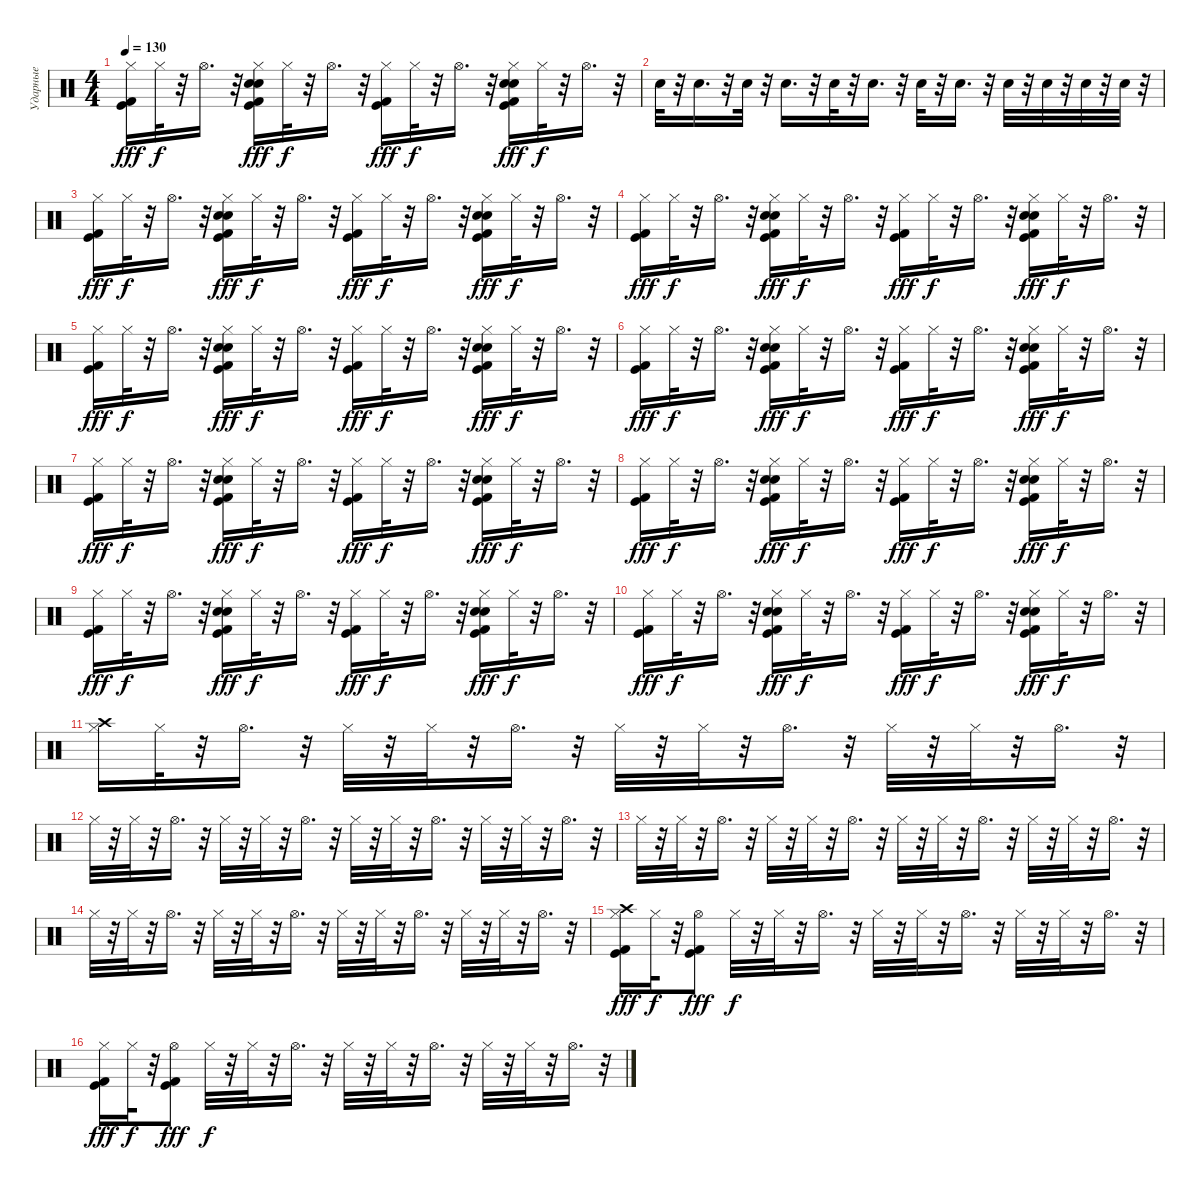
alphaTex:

\track ("Ударные" "Ударные") {instrument percussion}
\staff {score}
\articulation defaults
\ts (4 4)
\tempo 130
\clef neutral
\ks c
("Hi-Hat (closed)" "Kick (hit) 2" "Kick (hit)").16{dy fff} "Hi-Hat (closed)".32{dy f} r.32 "Hi-Hat (open)".16{d} r.32 ("Hi-Hat (closed)" "Kick (hit) 2" "Kick (hit)" "Hand Clap (hit)" "Hand Clap (hit)").16{dy fff} "Hi-Hat (closed)".32{dy f} r.32 "Hi-Hat (open)".16{d} r.32 ("Hi-Hat (closed)" "Kick (hit) 2" "Kick (hit)").16{dy fff} "Hi-Hat (closed)".32{dy f} r.32 "Hi-Hat (open)".16{d} r.32 ("Hi-Hat (closed)" "Kick (hit) 2" "Kick (hit)" "Hand Clap (hit)" "Hand Clap (hit)").16{dy fff} "Hi-Hat (closed)".32{dy f} r.32 "Hi-Hat (open)".16{d} r.32 |
"Electric Snare (hit)".32 r.32 "Electric Snare (hit)".16{d} r.32 "Electric Snare (hit)".32 r.32 "Electric Snare (hit)".16{d} r.32 "Electric Snare (hit)".32 r.32 "Electric Snare (hit)".16{d} r.32 "Electric Snare (hit)".32 r.32 "Electric Snare (hit)".16{d} r.32 "Electric Snare (hit)".32 r.32 "Electric Snare (hit)".32 r.32 "Electric Snare (hit)".32 r.32 "Electric Snare (hit)".32 r.32 |
("Hi-Hat (closed)" "Kick (hit) 2" "Kick (hit)").16{dy fff} "Hi-Hat (closed)".32{dy f} r.32 "Hi-Hat (open)".16{d} r.32 ("Hi-Hat (closed)" "Kick (hit) 2" "Kick (hit)" "Hand Clap (hit)" "Hand Clap (hit)").16{dy fff} "Hi-Hat (closed)".32{dy f} r.32 "Hi-Hat (open)".16{d} r.32 ("Hi-Hat (closed)" "Kick (hit) 2" "Kick (hit)").16{dy fff} "Hi-Hat (closed)".32{dy f} r.32 "Hi-Hat (open)".16{d} r.32 ("Hi-Hat (closed)" "Kick (hit) 2" "Kick (hit)" "Hand Clap (hit)" "Hand Clap (hit)").16{dy fff} "Hi-Hat (closed)".32{dy f} r.32 "Hi-Hat (open)".16{d} r.32 |
("Hi-Hat (closed)" "Kick (hit) 2" "Kick (hit)").16{dy fff} "Hi-Hat (closed)".32{dy f} r.32 "Hi-Hat (open)".16{d} r.32 ("Hi-Hat (closed)" "Kick (hit) 2" "Kick (hit)" "Hand Clap (hit)" "Hand Clap (hit)").16{dy fff} "Hi-Hat (closed)".32{dy f} r.32 "Hi-Hat (open)".16{d} r.32 ("Hi-Hat (closed)" "Kick (hit) 2" "Kick (hit)").16{dy fff} "Hi-Hat (closed)".32{dy f} r.32 "Hi-Hat (open)".16{d} r.32 ("Hi-Hat (closed)" "Kick (hit) 2" "Kick (hit)" "Hand Clap (hit)" "Hand Clap (hit)").16{dy fff} "Hi-Hat (closed)".32{dy f} r.32 "Hi-Hat (open)".16{d} r.32 |
("Hi-Hat (closed)" "Kick (hit) 2" "Kick (hit)").16{dy fff} "Hi-Hat (closed)".32{dy f} r.32 "Hi-Hat (open)".16{d} r.32 ("Hi-Hat (closed)" "Kick (hit) 2" "Kick (hit)" "Hand Clap (hit)" "Hand Clap (hit)").16{dy fff} "Hi-Hat (closed)".32{dy f} r.32 "Hi-Hat (open)".16{d} r.32 ("Hi-Hat (closed)" "Kick (hit) 2" "Kick (hit)").16{dy fff} "Hi-Hat (closed)".32{dy f} r.32 "Hi-Hat (open)".16{d} r.32 ("Hi-Hat (closed)" "Kick (hit) 2" "Kick (hit)" "Hand Clap (hit)" "Hand Clap (hit)").16{dy fff} "Hi-Hat (closed)".32{dy f} r.32 "Hi-Hat (open)".16{d} r.32 |
("Hi-Hat (closed)" "Kick (hit) 2" "Kick (hit)").16{dy fff} "Hi-Hat (closed)".32{dy f} r.32 "Hi-Hat (open)".16{d} r.32 ("Hi-Hat (closed)" "Kick (hit) 2" "Kick (hit)" "Hand Clap (hit)" "Hand Clap (hit)").16{dy fff} "Hi-Hat (closed)".32{dy f} r.32 "Hi-Hat (open)".16{d} r.32 ("Hi-Hat (closed)" "Kick (hit) 2" "Kick (hit)").16{dy fff} "Hi-Hat (closed)".32{dy f} r.32 "Hi-Hat (open)".16{d} r.32 ("Hi-Hat (closed)" "Kick (hit) 2" "Kick (hit)" "Hand Clap (hit)" "Hand Clap (hit)").16{dy fff} "Hi-Hat (closed)".32{dy f} r.32 "Hi-Hat (open)".16{d} r.32 |
("Hi-Hat (closed)" "Kick (hit) 2" "Kick (hit)").16{dy fff} "Hi-Hat (closed)".32{dy f} r.32 "Hi-Hat (open)".16{d} r.32 ("Hi-Hat (closed)" "Kick (hit) 2" "Kick (hit)" "Hand Clap (hit)" "Hand Clap (hit)").16{dy fff} "Hi-Hat (closed)".32{dy f} r.32 "Hi-Hat (open)".16{d} r.32 ("Hi-Hat (closed)" "Kick (hit) 2" "Kick (hit)").16{dy fff} "Hi-Hat (closed)".32{dy f} r.32 "Hi-Hat (open)".16{d} r.32 ("Hi-Hat (closed)" "Kick (hit) 2" "Kick (hit)" "Hand Clap (hit)" "Hand Clap (hit)").16{dy fff} "Hi-Hat (closed)".32{dy f} r.32 "Hi-Hat (open)".16{d} r.32 |
("Hi-Hat (closed)" "Kick (hit) 2" "Kick (hit)").16{dy fff} "Hi-Hat (closed)".32{dy f} r.32 "Hi-Hat (open)".16{d} r.32 ("Hi-Hat (closed)" "Kick (hit) 2" "Kick (hit)" "Hand Clap (hit)" "Hand Clap (hit)").16{dy fff} "Hi-Hat (closed)".32{dy f} r.32 "Hi-Hat (open)".16{d} r.32 ("Hi-Hat (closed)" "Kick (hit) 2" "Kick (hit)").16{dy fff} "Hi-Hat (closed)".32{dy f} r.32 "Hi-Hat (open)".16{d} r.32 ("Hi-Hat (closed)" "Kick (hit) 2" "Kick (hit)" "Hand Clap (hit)" "Hand Clap (hit)").16{dy fff} "Hi-Hat (closed)".32{dy f} r.32 "Hi-Hat (open)".16{d} r.32 |
("Hi-Hat (closed)" "Kick (hit) 2" "Kick (hit)").16{dy fff} "Hi-Hat (closed)".32{dy f} r.32 "Hi-Hat (open)".16{d} r.32 ("Hi-Hat (closed)" "Kick (hit) 2" "Kick (hit)" "Hand Clap (hit)" "Hand Clap (hit)").16{dy fff} "Hi-Hat (closed)".32{dy f} r.32 "Hi-Hat (open)".16{d} r.32 ("Hi-Hat (closed)" "Kick (hit) 2" "Kick (hit)").16{dy fff} "Hi-Hat (closed)".32{dy f} r.32 "Hi-Hat (open)".16{d} r.32 ("Hi-Hat (closed)" "Kick (hit) 2" "Kick (hit)" "Hand Clap (hit)" "Hand Clap (hit)").16{dy fff} "Hi-Hat (closed)".32{dy f} r.32 "Hi-Hat (open)".16{d} r.32 |
("Hi-Hat (closed)" "Kick (hit) 2" "Kick (hit)").16{dy fff} "Hi-Hat (closed)".32{dy f} r.32 "Hi-Hat (open)".16{d} r.32 ("Hi-Hat (closed)" "Kick (hit) 2" "Kick (hit)" "Hand Clap (hit)" "Hand Clap (hit)").16{dy fff} "Hi-Hat (closed)".32{dy f} r.32 "Hi-Hat (open)".16{d} r.32 ("Hi-Hat (closed)" "Kick (hit) 2" "Kick (hit)").16{dy fff} "Hi-Hat (closed)".32{dy f} r.32 "Hi-Hat (open)".16{d} r.32 ("Hi-Hat (closed)" "Kick (hit) 2" "Kick (hit)" "Hand Clap (hit)" "Hand Clap (hit)").16{dy fff} "Hi-Hat (closed)".32{dy f} r.32 "Hi-Hat (open)".16{d} r.32 |
("Crash high (hit)" "Hi-Hat (closed)").16 "Hi-Hat (closed)".32 r.32 "Hi-Hat (open)".16{d} r.32 "Hi-Hat (closed)".32 r.32 "Hi-Hat (closed)".32 r.32 "Hi-Hat (open)".16{d} r.32 "Hi-Hat (closed)".32 r.32 "Hi-Hat (closed)".32 r.32 "Hi-Hat (open)".16{d} r.32 "Hi-Hat (closed)".32 r.32 "Hi-Hat (closed)".32 r.32 "Hi-Hat (open)".16{d} r.32 |
"Hi-Hat (closed)".32 r.32 "Hi-Hat (closed)".32 r.32 "Hi-Hat (open)".16{d} r.32 "Hi-Hat (closed)".32 r.32 "Hi-Hat (closed)".32 r.32 "Hi-Hat (open)".16{d} r.32 "Hi-Hat (closed)".32 r.32 "Hi-Hat (closed)".32 r.32 "Hi-Hat (open)".16{d} r.32 "Hi-Hat (closed)".32 r.32 "Hi-Hat (closed)".32 r.32 "Hi-Hat (open)".16{d} r.32 |
"Hi-Hat (closed)".32 r.32 "Hi-Hat (closed)".32 r.32 "Hi-Hat (open)".16{d} r.32 "Hi-Hat (closed)".32 r.32 "Hi-Hat (closed)".32 r.32 "Hi-Hat (open)".16{d} r.32 "Hi-Hat (closed)".32 r.32 "Hi-Hat (closed)".32 r.32 "Hi-Hat (open)".16{d} r.32 "Hi-Hat (closed)".32 r.32 "Hi-Hat (closed)".32 r.32 "Hi-Hat (open)".16{d} r.32 |
"Hi-Hat (closed)".32 r.32 "Hi-Hat (closed)".32 r.32 "Hi-Hat (open)".16{d} r.32 "Hi-Hat (closed)".32 r.32 "Hi-Hat (closed)".32 r.32 "Hi-Hat (open)".16{d} r.32 "Hi-Hat (closed)".32 r.32 "Hi-Hat (closed)".32 r.32 "Hi-Hat (open)".16{d} r.32 "Hi-Hat (closed)".32 r.32 "Hi-Hat (closed)".32 r.32 "Hi-Hat (open)".16{d} r.32 |
("Crash high (hit)" "Hi-Hat (closed)" "Kick (hit) 2" "Kick (hit)").16{dy fff} "Hi-Hat (closed)".32{dy f} r.32 ("Hi-Hat (open)" "Kick (hit) 2" "Kick (hit)").8{dy fff} "Hi-Hat (closed)".32{dy f} r.32 "Hi-Hat (closed)".32 r.32 "Hi-Hat (open)".16{d} r.32 "Hi-Hat (closed)".32 r.32 "Hi-Hat (closed)".32 r.32 "Hi-Hat (open)".16{d} r.32 "Hi-Hat (closed)".32 r.32 "Hi-Hat (closed)".32 r.32 "Hi-Hat (open)".16{d} r.32 |
("Hi-Hat (closed)" "Kick (hit) 2" "Kick (hit)").16{dy fff} "Hi-Hat (closed)".32{dy f} r.32 ("Hi-Hat (open)" "Kick (hit) 2" "Kick (hit)").8{dy fff} "Hi-Hat (closed)".32{dy f} r.32 "Hi-Hat (closed)".32 r.32 "Hi-Hat (open)".16{d} r.32 "Hi-Hat (closed)".32 r.32 "Hi-Hat (closed)".32 r.32 "Hi-Hat (open)".16{d} r.32 "Hi-Hat (closed)".32 r.32 "Hi-Hat (closed)".32 r.32 "Hi-Hat (open)".16{d} r.32
